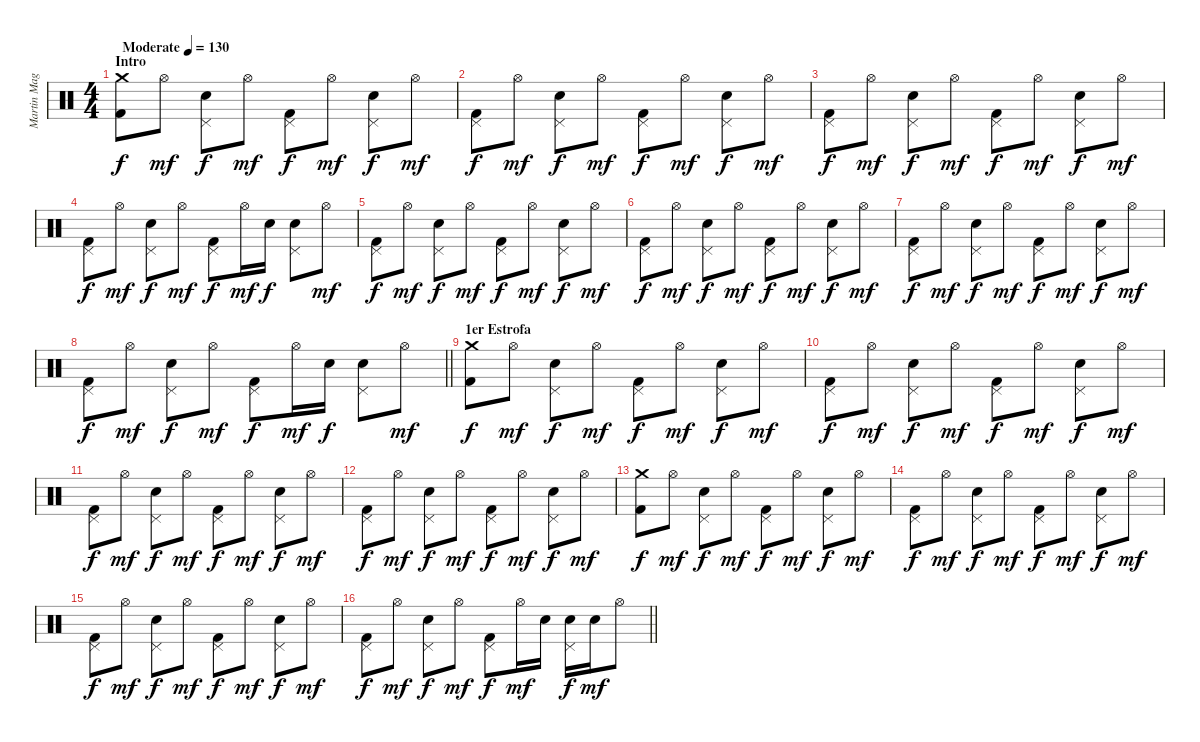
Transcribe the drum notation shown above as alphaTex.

\track ("Martin Magliano" "Martin Mag") {instrument percussion}
\staff {score}
\articulation defaults
\ts (4 4)
\section ("" "Intro")
\tempo (130 "Moderate")
\clef neutral
\ks c
("Crash medium (hit)" "Kick (hit) 2").8{dy f} "Hi-Hat (open)".8{dy mf} ("Pedal Hi-Hat (hit)" "Snare (hit) 2").8{dy f} "Hi-Hat (open)".8{dy mf} ("Pedal Hi-Hat (hit)" "Kick (hit) 2").8{dy f} "Hi-Hat (open)".8{dy mf} ("Pedal Hi-Hat (hit)" "Snare (hit) 2").8{dy f} "Hi-Hat (open)".8{dy mf} |
("Pedal Hi-Hat (hit)" "Kick (hit) 2").8{dy f} "Hi-Hat (open)".8{dy mf} ("Pedal Hi-Hat (hit)" "Snare (hit) 2").8{dy f} "Hi-Hat (open)".8{dy mf} ("Pedal Hi-Hat (hit)" "Kick (hit) 2").8{dy f} "Hi-Hat (open)".8{dy mf} ("Pedal Hi-Hat (hit)" "Snare (hit) 2").8{dy f} "Hi-Hat (open)".8{dy mf} |
("Pedal Hi-Hat (hit)" "Kick (hit) 2").8{dy f} "Hi-Hat (open)".8{dy mf} ("Pedal Hi-Hat (hit)" "Snare (hit) 2").8{dy f} "Hi-Hat (open)".8{dy mf} ("Pedal Hi-Hat (hit)" "Kick (hit) 2").8{dy f} "Hi-Hat (open)".8{dy mf} ("Pedal Hi-Hat (hit)" "Snare (hit) 2").8{dy f} "Hi-Hat (open)".8{dy mf} |
("Pedal Hi-Hat (hit)" "Kick (hit) 2").8{dy f} "Hi-Hat (open)".8{dy mf} ("Pedal Hi-Hat (hit)" "Snare (hit) 2").8{dy f} "Hi-Hat (open)".8{dy mf} ("Pedal Hi-Hat (hit)" "Kick (hit) 2").8{dy f} "Hi-Hat (open)".16{dy mf} "Snare (hit) 2".16{dy f} ("Pedal Hi-Hat (hit)" "Snare (hit) 2").8 "Hi-Hat (open)".8{dy mf} |
("Pedal Hi-Hat (hit)" "Kick (hit) 2").8{dy f} "Hi-Hat (open)".8{dy mf} ("Pedal Hi-Hat (hit)" "Snare (hit) 2").8{dy f} "Hi-Hat (open)".8{dy mf} ("Pedal Hi-Hat (hit)" "Kick (hit) 2").8{dy f} "Hi-Hat (open)".8{dy mf} ("Pedal Hi-Hat (hit)" "Snare (hit) 2").8{dy f} "Hi-Hat (open)".8{dy mf} |
("Pedal Hi-Hat (hit)" "Kick (hit) 2").8{dy f} "Hi-Hat (open)".8{dy mf} ("Pedal Hi-Hat (hit)" "Snare (hit) 2").8{dy f} "Hi-Hat (open)".8{dy mf} ("Pedal Hi-Hat (hit)" "Kick (hit) 2").8{dy f} "Hi-Hat (open)".8{dy mf} ("Pedal Hi-Hat (hit)" "Snare (hit) 2").8{dy f} "Hi-Hat (open)".8{dy mf} |
("Pedal Hi-Hat (hit)" "Kick (hit) 2").8{dy f} "Hi-Hat (open)".8{dy mf} ("Pedal Hi-Hat (hit)" "Snare (hit) 2").8{dy f} "Hi-Hat (open)".8{dy mf} ("Pedal Hi-Hat (hit)" "Kick (hit) 2").8{dy f} "Hi-Hat (open)".8{dy mf} ("Pedal Hi-Hat (hit)" "Snare (hit) 2").8{dy f} "Hi-Hat (open)".8{dy mf} |
\barLineRight lightlight
("Pedal Hi-Hat (hit)" "Kick (hit) 2").8{dy f} "Hi-Hat (open)".8{dy mf} ("Pedal Hi-Hat (hit)" "Snare (hit) 2").8{dy f} "Hi-Hat (open)".8{dy mf} ("Pedal Hi-Hat (hit)" "Kick (hit) 2").8{dy f} "Hi-Hat (open)".16{dy mf} "Snare (hit) 2".16{dy f} ("Pedal Hi-Hat (hit)" "Snare (hit) 2").8 "Hi-Hat (open)".8{dy mf} |
\section ("" "1er Estrofa")
("Crash medium (hit)" "Kick (hit) 2").8{dy f} "Hi-Hat (open)".8{dy mf} ("Pedal Hi-Hat (hit)" "Snare (hit) 2").8{dy f} "Hi-Hat (open)".8{dy mf} ("Pedal Hi-Hat (hit)" "Kick (hit) 2").8{dy f} "Hi-Hat (open)".8{dy mf} ("Pedal Hi-Hat (hit)" "Snare (hit) 2").8{dy f} "Hi-Hat (open)".8{dy mf} |
("Pedal Hi-Hat (hit)" "Kick (hit) 2").8{dy f} "Hi-Hat (open)".8{dy mf} ("Pedal Hi-Hat (hit)" "Snare (hit) 2").8{dy f} "Hi-Hat (open)".8{dy mf} ("Pedal Hi-Hat (hit)" "Kick (hit) 2").8{dy f} "Hi-Hat (open)".8{dy mf} ("Pedal Hi-Hat (hit)" "Snare (hit) 2").8{dy f} "Hi-Hat (open)".8{dy mf} |
("Pedal Hi-Hat (hit)" "Kick (hit) 2").8{dy f} "Hi-Hat (open)".8{dy mf} ("Pedal Hi-Hat (hit)" "Snare (hit) 2").8{dy f} "Hi-Hat (open)".8{dy mf} ("Pedal Hi-Hat (hit)" "Kick (hit) 2").8{dy f} "Hi-Hat (open)".8{dy mf} ("Pedal Hi-Hat (hit)" "Snare (hit) 2").8{dy f} "Hi-Hat (open)".8{dy mf} |
("Pedal Hi-Hat (hit)" "Kick (hit) 2").8{dy f} "Hi-Hat (open)".8{dy mf} ("Pedal Hi-Hat (hit)" "Snare (hit) 2").8{dy f} "Hi-Hat (open)".8{dy mf} ("Pedal Hi-Hat (hit)" "Kick (hit) 2").8{dy f} "Hi-Hat (open)".8{dy mf} ("Pedal Hi-Hat (hit)" "Snare (hit) 2").8{dy f} "Hi-Hat (open)".8{dy mf} |
("Crash medium (hit)" "Kick (hit) 2").8{dy f} "Hi-Hat (open)".8{dy mf} ("Pedal Hi-Hat (hit)" "Snare (hit) 2").8{dy f} "Hi-Hat (open)".8{dy mf} ("Pedal Hi-Hat (hit)" "Kick (hit) 2").8{dy f} "Hi-Hat (open)".8{dy mf} ("Pedal Hi-Hat (hit)" "Snare (hit) 2").8{dy f} "Hi-Hat (open)".8{dy mf} |
("Pedal Hi-Hat (hit)" "Kick (hit) 2").8{dy f} "Hi-Hat (open)".8{dy mf} ("Pedal Hi-Hat (hit)" "Snare (hit) 2").8{dy f} "Hi-Hat (open)".8{dy mf} ("Pedal Hi-Hat (hit)" "Kick (hit) 2").8{dy f} "Hi-Hat (open)".8{dy mf} ("Pedal Hi-Hat (hit)" "Snare (hit) 2").8{dy f} "Hi-Hat (open)".8{dy mf} |
("Pedal Hi-Hat (hit)" "Kick (hit) 2").8{dy f} "Hi-Hat (open)".8{dy mf} ("Pedal Hi-Hat (hit)" "Snare (hit) 2").8{dy f} "Hi-Hat (open)".8{dy mf} ("Pedal Hi-Hat (hit)" "Kick (hit) 2").8{dy f} "Hi-Hat (open)".8{dy mf} ("Pedal Hi-Hat (hit)" "Snare (hit) 2").8{dy f} "Hi-Hat (open)".8{dy mf} |
\barLineRight lightlight
("Pedal Hi-Hat (hit)" "Kick (hit) 2").8{dy f} "Hi-Hat (open)".8{dy mf} ("Pedal Hi-Hat (hit)" "Snare (hit) 2").8{dy f} "Hi-Hat (open)".8{dy mf} ("Pedal Hi-Hat (hit)" "Kick (hit) 2").8{dy f} "Hi-Hat (open)".16{dy mf} "Snare (hit) 2".16 ("Pedal Hi-Hat (hit)" "Snare (hit) 2").16{dy f} "Snare (hit) 2".16{dy mf} "Hi-Hat (open)".8
